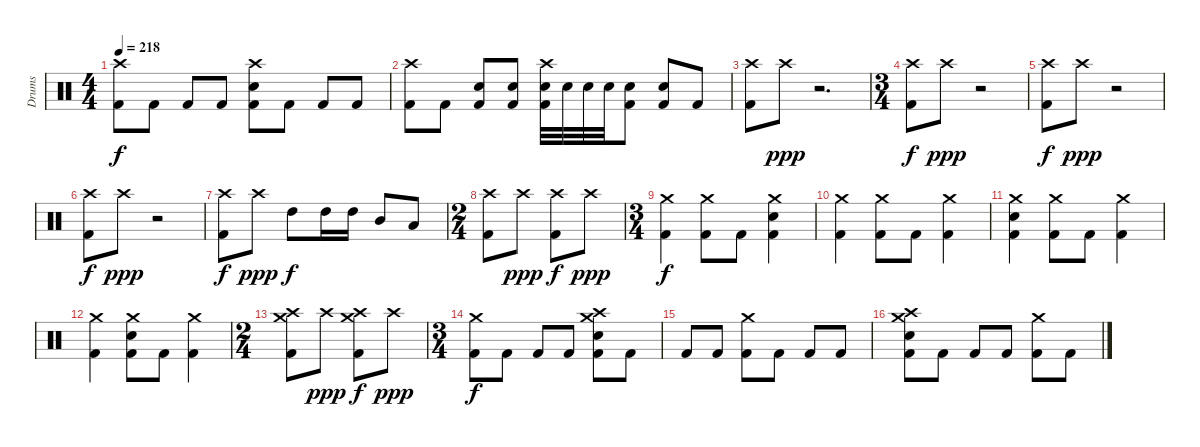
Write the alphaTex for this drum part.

\track ("Drums" "Drums") {instrument percussion}
\staff {score}
\articulation defaults
\ts (4 4)
\tempo 218
\clef neutral
\ks c
("Crash high (hit)" "Kick (hit) 2").8{dy f} "Kick (hit) 2".8 "Kick (hit) 2".8 "Kick (hit) 2".8 ("Crash high (hit)" "Electric Snare (hit)" "Kick (hit) 2").8 "Kick (hit) 2".8 "Kick (hit) 2".8 "Kick (hit) 2".8 |
("Crash high (hit)" "Kick (hit) 2").8 "Kick (hit) 2".8 ("Electric Snare (hit)" "Kick (hit) 2").8 ("Electric Snare (hit)" "Kick (hit) 2").8 ("Crash high (hit)" "Electric Snare (hit)" "Kick (hit) 2").32 "Electric Snare (hit)".32 "Electric Snare (hit)".32 "Electric Snare (hit)".32 ("Electric Snare (hit)" "Kick (hit) 2").8 ("Snare (hit)" "Kick (hit) 2").8 "Kick (hit) 2".8 |
("Crash high (hit)" "Kick (hit) 2").8 "Crash high (hit)".8{dy ppp} r.2{d} |
\ts (3 4)
("Crash high (hit)" "Kick (hit) 2").8{dy f} "Crash high (hit)".8{dy ppp} r.2 |
("Crash high (hit)" "Kick (hit) 2").8{dy f} "Crash high (hit)".8{dy ppp} r.2 |
("Crash high (hit)" "Kick (hit) 2").8{dy f} "Crash high (hit)".8{dy ppp} r.2 |
("Crash high (hit)" "Kick (hit) 2").8{dy f} "Crash high (hit)".8{dy ppp} "High Tom (hit)".8{dy f} "High Tom (hit)".16 "High Tom (hit)".16 "Mid Tom (hit)".8 "Low Tom (hit)".8 |
\ts (2 4)
("Crash high (hit)" "Kick (hit) 2").8 "Crash high (hit)".8{dy ppp} ("Crash high (hit)" "Kick (hit) 2").8{dy f} "Crash high (hit)".8{dy ppp} |
\ts (3 4)
("Crash medium (hit)" "Kick (hit) 2").4{dy f} ("Crash medium (hit)" "Kick (hit) 2").8 "Kick (hit) 2".8 ("Crash medium (hit)" "Electric Snare (hit)" "Kick (hit) 2").4 |
("Crash medium (hit)" "Kick (hit) 2").4 ("Crash medium (hit)" "Kick (hit) 2").8 "Kick (hit) 2".8 ("Crash medium (hit)" "Kick (hit) 2").4 |
("Crash medium (hit)" "Electric Snare (hit)" "Kick (hit) 2").4 ("Crash medium (hit)" "Kick (hit) 2").8 "Kick (hit) 2".8 ("Crash medium (hit)" "Kick (hit) 2").4 |
("Crash medium (hit)" "Kick (hit) 2").4 ("Crash medium (hit)" "Electric Snare (hit)" "Kick (hit) 2").8 "Kick (hit) 2".8 ("Crash medium (hit)" "Kick (hit) 2").4 |
\ts (2 4)
("Crash high (hit)" "Crash medium (hit)" "Kick (hit) 2").8 "Crash high (hit)".8{dy ppp} ("Crash high (hit)" "Crash medium (hit)" "Kick (hit) 2").8{dy f} "Crash high (hit)".8{dy ppp} |
\ts (3 4)
("Crash medium (hit)" "Kick (hit) 2").8{dy f} "Kick (hit) 2".8 "Kick (hit) 2".8 "Kick (hit) 2".8 ("Crash high (hit)" "Crash medium (hit)" "Electric Snare (hit)" "Kick (hit) 2").8 "Kick (hit) 2".8 |
"Kick (hit) 2".8 "Kick (hit) 2".8 ("Crash medium (hit)" "Kick (hit) 2").8 "Kick (hit) 2".8 "Kick (hit) 2".8 "Kick (hit) 2".8 |
("Crash high (hit)" "Crash medium (hit)" "Electric Snare (hit)" "Kick (hit) 2").8 "Kick (hit) 2".8 "Kick (hit) 2".8 "Kick (hit) 2".8 ("Crash medium (hit)" "Kick (hit) 2").8 "Kick (hit) 2".8
